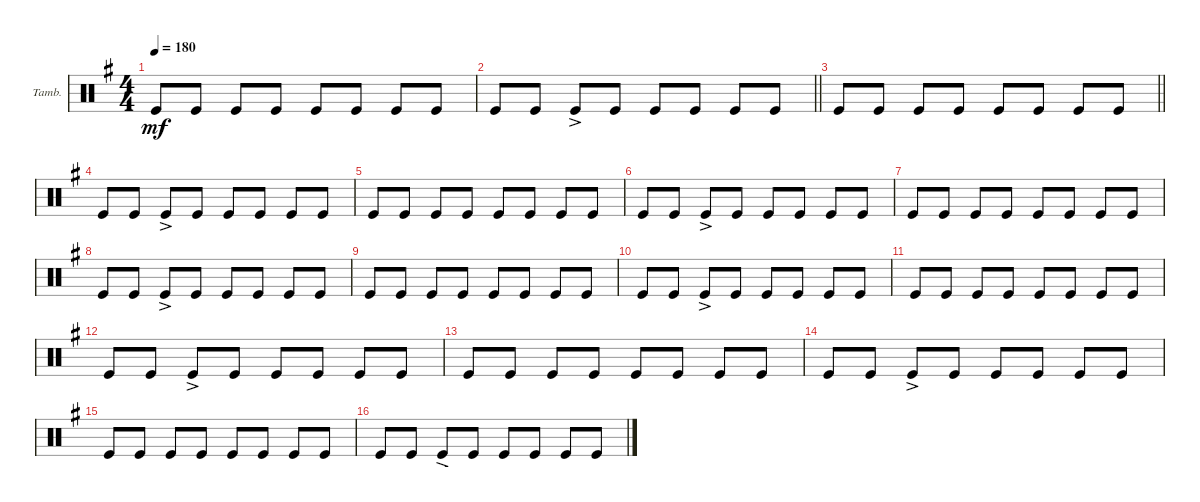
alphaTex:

\defaultSystemsLayout 4
\bracketExtendMode groupsimilarinstruments
\firstSystemTrackNameOrientation horizontal
\otherSystemsTrackNameOrientation horizontal
\track ("Tambourine" "Tamb.") {instrument percussion}
\staff {score}
\articulation defaults
\ts (4 4)
\tempo 180
\clef neutral
\ks g "Kick (hit)".8{dy mf} "Kick (hit)".8 "Kick (hit)".8 "Kick (hit)".8 "Kick (hit)".8 "Kick (hit)".8 "Kick (hit)".8 "Kick (hit)".8
|
\barLineRight lightlight "Kick (hit)".8 "Kick (hit)".8 "Kick (hit)"{ac}.8 "Kick (hit)".8 "Kick (hit)".8 "Kick (hit)".8 "Kick (hit)".8 "Kick (hit)".8
|
\barLineRight lightlight "Kick (hit)".8 "Kick (hit)".8 "Kick (hit)".8 "Kick (hit)".8 "Kick (hit)".8 "Kick (hit)".8 "Kick (hit)".8 "Kick (hit)".8
|
"Kick (hit)".8 "Kick (hit)".8 "Kick (hit)"{ac}.8 "Kick (hit)".8 "Kick (hit)".8 "Kick (hit)".8 "Kick (hit)".8 "Kick (hit)".8 |
"Kick (hit)".8 "Kick (hit)".8 "Kick (hit)".8 "Kick (hit)".8 "Kick (hit)".8 "Kick (hit)".8 "Kick (hit)".8 "Kick (hit)".8 |
"Kick (hit)".8 "Kick (hit)".8 "Kick (hit)"{ac}.8 "Kick (hit)".8 "Kick (hit)".8 "Kick (hit)".8 "Kick (hit)".8 "Kick (hit)".8 |
"Kick (hit)".8 "Kick (hit)".8 "Kick (hit)".8 "Kick (hit)".8 "Kick (hit)".8 "Kick (hit)".8 "Kick (hit)".8 "Kick (hit)".8 |
"Kick (hit)".8 "Kick (hit)".8 "Kick (hit)"{ac}.8 "Kick (hit)".8 "Kick (hit)".8 "Kick (hit)".8 "Kick (hit)".8 "Kick (hit)".8 |
"Kick (hit)".8 "Kick (hit)".8 "Kick (hit)".8 "Kick (hit)".8 "Kick (hit)".8 "Kick (hit)".8 "Kick (hit)".8 "Kick (hit)".8 |
"Kick (hit)".8 "Kick (hit)".8 "Kick (hit)"{ac}.8 "Kick (hit)".8 "Kick (hit)".8 "Kick (hit)".8 "Kick (hit)".8 "Kick (hit)".8 |
"Kick (hit)".8 "Kick (hit)".8 "Kick (hit)".8 "Kick (hit)".8 "Kick (hit)".8 "Kick (hit)".8 "Kick (hit)".8 "Kick (hit)".8 |
"Kick (hit)".8 "Kick (hit)".8 "Kick (hit)"{ac}.8 "Kick (hit)".8 "Kick (hit)".8 "Kick (hit)".8 "Kick (hit)".8 "Kick (hit)".8 |
"Kick (hit)".8 "Kick (hit)".8 "Kick (hit)".8 "Kick (hit)".8 "Kick (hit)".8 "Kick (hit)".8 "Kick (hit)".8 "Kick (hit)".8 |
"Kick (hit)".8 "Kick (hit)".8 "Kick (hit)"{ac}.8 "Kick (hit)".8 "Kick (hit)".8 "Kick (hit)".8 "Kick (hit)".8 "Kick (hit)".8 |
"Kick (hit)".8 "Kick (hit)".8 "Kick (hit)".8 "Kick (hit)".8 "Kick (hit)".8 "Kick (hit)".8 "Kick (hit)".8 "Kick (hit)".8 |
"Kick (hit)".8 "Kick (hit)".8 "Kick (hit)"{ac}.8 "Kick (hit)".8 "Kick (hit)".8 "Kick (hit)".8 "Kick (hit)".8 "Kick (hit)".8
